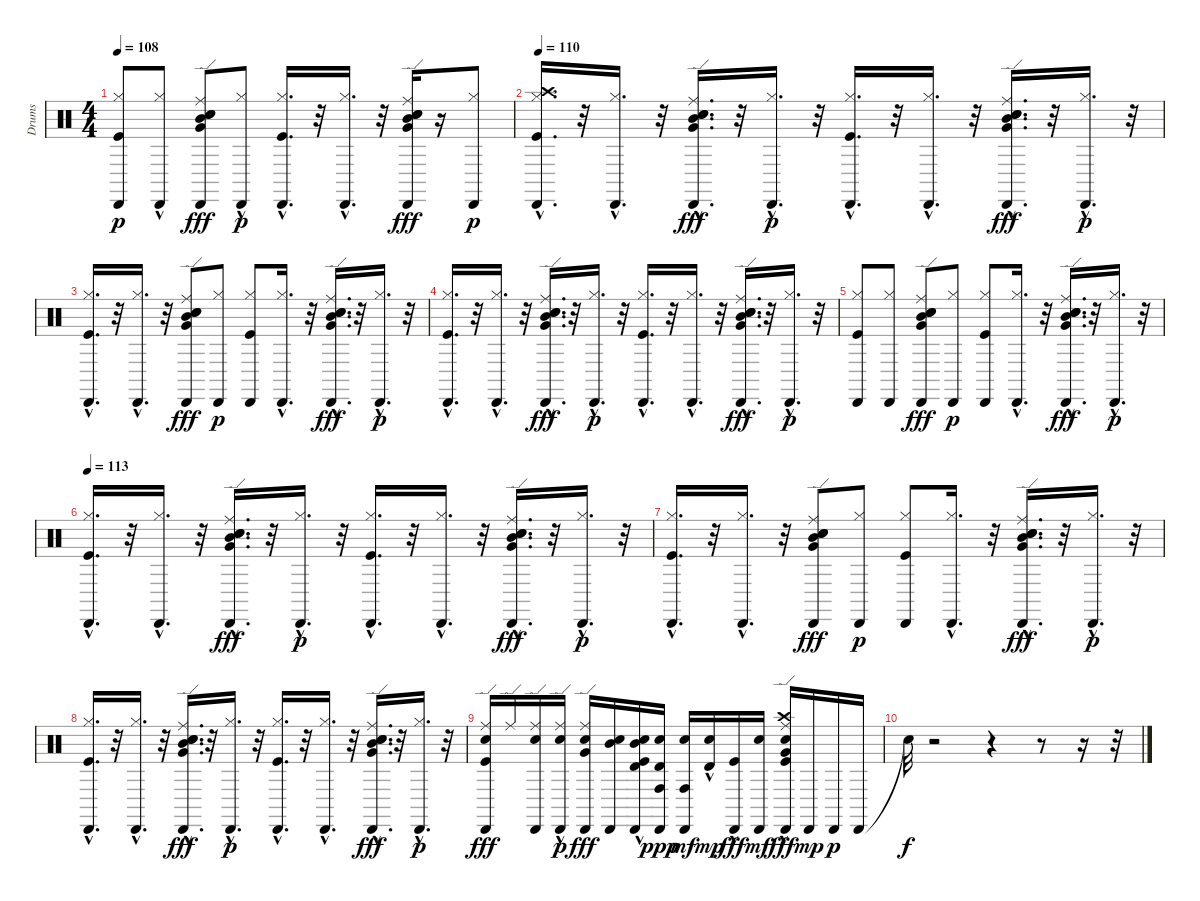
\track ("Drums" "Drums") {instrument percussion}
\staff {score}
\articulation defaults
\ts (4 4)
\tempo 108
\clef neutral
\ks c
("Hi-Hat (closed)" "Kick (hit)" "Cabasa (hit)").8{dy p} ("Hi-Hat (closed)"{hac} "Cabasa (hit)").8 ("Electric Snare (hit)" "Snare (hit) 2" "Ride (edge)" "Mid Tom (hit)" "Cabasa (hit)" "Very Low Tom (hit)").8{dy fff} ("Hi-Hat (closed)"{hac} "Cabasa (hit)").8{dy p} ("Hi-Hat (closed)"{hac} "Kick (hit)"{hac} "Cabasa (hit)"{hac}).16{d} r.32 ("Hi-Hat (closed)"{hac} "Cabasa (hit)"{hac}).16{d} r.32 ("Electric Snare (hit)" "Snare (hit) 2" "Ride (edge)" "Mid Tom (hit)" "Cabasa (hit)" "Very Low Tom (hit)").16{dy fff} r.16 ("Hi-Hat (closed)" "Cabasa (hit)").8{dy p} |
\tempo 110
("Crash high (hit)" "Hi-Hat (closed)"{hac} "Kick (hit)"{hac} "Cabasa (hit)"{hac}).16{d} r.32 ("Hi-Hat (closed)"{hac} "Cabasa (hit)"{hac}).16{d} r.32 ("Electric Snare (hit)"{hac} "Snare (hit) 2"{hac} "Ride (edge)"{hac} "Mid Tom (hit)"{hac} "Cabasa (hit)"{hac} "Very Low Tom (hit)"{hac}).16{d dy fff} r.32 ("Hi-Hat (closed)"{hac} "Cabasa (hit)"{hac}).16{d dy p} r.32 ("Hi-Hat (closed)"{hac} "Kick (hit)"{hac} "Cabasa (hit)"{hac}).16{d} r.32 ("Hi-Hat (closed)"{hac} "Cabasa (hit)"{hac}).16{d} r.32 ("Electric Snare (hit)"{hac} "Snare (hit) 2"{hac} "Ride (edge)"{hac} "Mid Tom (hit)"{hac} "Cabasa (hit)"{hac} "Very Low Tom (hit)"{hac}).16{d dy fff} r.32 ("Hi-Hat (closed)"{hac} "Cabasa (hit)"{hac}).16{d dy p} r.32 |
("Hi-Hat (closed)"{hac} "Kick (hit)"{hac} "Cabasa (hit)"{hac}).16{d} r.32 ("Hi-Hat (closed)"{hac} "Cabasa (hit)"{hac}).16{d} r.32 ("Electric Snare (hit)" "Snare (hit) 2" "Ride (edge)" "Mid Tom (hit)" "Cabasa (hit)" "Very Low Tom (hit)").8{dy fff} ("Hi-Hat (closed)" "Cabasa (hit)").8{dy p} ("Hi-Hat (closed)" "Kick (hit)" "Cabasa (hit)").8 ("Hi-Hat (closed)"{hac} "Cabasa (hit)"{hac}).16{d} r.32 ("Electric Snare (hit)"{hac} "Snare (hit) 2"{hac} "Ride (edge)"{hac} "Mid Tom (hit)"{hac} "Cabasa (hit)"{hac} "Very Low Tom (hit)"{hac}).16{d dy fff} r.32 ("Hi-Hat (closed)"{hac} "Cabasa (hit)"{hac}).16{d dy p} r.32 |
("Hi-Hat (closed)"{hac} "Kick (hit)"{hac} "Cabasa (hit)"{hac}).16{d} r.32 ("Hi-Hat (closed)"{hac} "Cabasa (hit)"{hac}).16{d} r.32 ("Electric Snare (hit)"{hac} "Snare (hit) 2"{hac} "Ride (edge)"{hac} "Mid Tom (hit)"{hac} "Cabasa (hit)"{hac} "Very Low Tom (hit)"{hac}).16{d dy fff} r.32 ("Hi-Hat (closed)"{hac} "Cabasa (hit)"{hac}).16{d dy p} r.32 ("Hi-Hat (closed)"{hac} "Kick (hit)"{hac} "Cabasa (hit)"{hac}).16{d} r.32 ("Hi-Hat (closed)"{hac} "Cabasa (hit)"{hac}).16{d} r.32 ("Electric Snare (hit)"{hac} "Snare (hit) 2"{hac} "Ride (edge)"{hac} "Mid Tom (hit)"{hac} "Cabasa (hit)"{hac} "Very Low Tom (hit)"{hac}).16{d dy fff} r.32 ("Hi-Hat (closed)"{hac} "Cabasa (hit)"{hac}).16{d dy p} r.32 |
("Hi-Hat (closed)" "Kick (hit)" "Cabasa (hit)").8 ("Hi-Hat (closed)" "Cabasa (hit)").8 ("Electric Snare (hit)" "Snare (hit) 2" "Ride (edge)" "Mid Tom (hit)" "Cabasa (hit)" "Very Low Tom (hit)").8{dy fff} ("Hi-Hat (closed)" "Cabasa (hit)").8{dy p} ("Hi-Hat (closed)" "Kick (hit)" "Cabasa (hit)").8 ("Hi-Hat (closed)"{hac} "Cabasa (hit)"{hac}).16{d} r.32 ("Electric Snare (hit)"{hac} "Snare (hit) 2"{hac} "Ride (edge)"{hac} "Mid Tom (hit)"{hac} "Cabasa (hit)"{hac} "Very Low Tom (hit)"{hac}).16{d dy fff} r.32 ("Hi-Hat (closed)"{hac} "Cabasa (hit)"{hac}).16{d dy p} r.32 |
\tempo 113
("Hi-Hat (closed)"{hac} "Kick (hit)"{hac} "Cabasa (hit)"{hac}).16{d} r.32 ("Hi-Hat (closed)"{hac} "Cabasa (hit)"{hac}).16{d} r.32 ("Electric Snare (hit)"{hac} "Snare (hit) 2"{hac} "Ride (edge)"{hac} "Mid Tom (hit)"{hac} "Cabasa (hit)"{hac} "Very Low Tom (hit)"{hac}).16{d dy fff} r.32 ("Hi-Hat (closed)"{hac} "Cabasa (hit)"{hac}).16{d dy p} r.32 ("Hi-Hat (closed)"{hac} "Kick (hit)"{hac} "Cabasa (hit)"{hac}).16{d} r.32 ("Hi-Hat (closed)"{hac} "Cabasa (hit)"{hac}).16{d} r.32 ("Electric Snare (hit)"{hac} "Snare (hit) 2"{hac} "Ride (edge)"{hac} "Mid Tom (hit)"{hac} "Cabasa (hit)"{hac} "Very Low Tom (hit)"{hac}).16{d dy fff} r.32 ("Hi-Hat (closed)"{hac} "Cabasa (hit)"{hac}).16{d dy p} r.32 |
("Hi-Hat (closed)"{hac} "Kick (hit)"{hac} "Cabasa (hit)"{hac}).16{d} r.32 ("Hi-Hat (closed)"{hac} "Cabasa (hit)"{hac}).16{d} r.32 ("Electric Snare (hit)" "Snare (hit) 2" "Ride (edge)" "Mid Tom (hit)" "Cabasa (hit)" "Very Low Tom (hit)").8{dy fff} ("Hi-Hat (closed)" "Cabasa (hit)").8{dy p} ("Hi-Hat (closed)" "Kick (hit)" "Cabasa (hit)").8 ("Hi-Hat (closed)"{hac} "Cabasa (hit)"{hac}).16{d} r.32 ("Electric Snare (hit)"{hac} "Snare (hit) 2"{hac} "Ride (edge)"{hac} "Mid Tom (hit)"{hac} "Cabasa (hit)"{hac} "Very Low Tom (hit)"{hac}).16{d dy fff} r.32 ("Hi-Hat (closed)"{hac} "Cabasa (hit)"{hac}).16{d dy p} r.32 |
("Hi-Hat (closed)"{hac} "Kick (hit)"{hac} "Cabasa (hit)"{hac}).16{d} r.32 ("Hi-Hat (closed)"{hac} "Cabasa (hit)"{hac}).16{d} r.32 ("Electric Snare (hit)"{hac} "Snare (hit) 2"{hac} "Ride (edge)"{hac} "Mid Tom (hit)"{hac} "Cabasa (hit)"{hac} "Very Low Tom (hit)"{hac}).16{d dy fff} r.32 ("Hi-Hat (closed)"{hac} "Cabasa (hit)"{hac}).16{d dy p} r.32 ("Hi-Hat (closed)"{hac} "Kick (hit)"{hac} "Cabasa (hit)"{hac}).16{d} r.32 ("Hi-Hat (closed)"{hac} "Cabasa (hit)"{hac}).16{d} r.32 ("Electric Snare (hit)"{hac} "Snare (hit) 2"{hac} "Ride (edge)"{hac} "Mid Tom (hit)"{hac} "Cabasa (hit)"{hac} "Very Low Tom (hit)"{hac}).16{d dy fff} r.32 ("Hi-Hat (closed)"{hac} "Cabasa (hit)"{hac}).16{d dy p} r.32 |
("Cabasa (hit)" "Ride (edge)" "Hand Clap (hit)" "Kick (hit)").16{dy fff} "Ride (edge)".16 ("Cabasa (hit)" "Hand Clap (hit)" "Ride (edge)").16 ("Cabasa (hit)" "Ride (edge)" "Hand Clap (hit)"{hac}).16{dy p} ("Ride (edge)" "Electric Snare (hit)" "Cabasa (hit)" "Very Low Tom (hit)").16{dy fff} ("Cabasa (hit)" "Hand Clap (hit)" "Mid Tom (hit)").16 ("Cabasa (hit)" "Timbale high (hit)" "Hand Clap (hit)" "Mid Tom (hit)"{hac} "Kick (hit)"{hac}).16 ("Cabasa (hit)" "Timbale high (hit)" "Hand Clap (hit)" "Conga high (hit)").16{dy ppp} ("Cabasa (hit)" "Hand Clap (hit)" "Conga high (hit)").16{dy mf} ("Timbale high (hit)"{hac} "Hand Clap (hit)"{hac}).16{dy mp} ("Cabasa (hit)" "Kick (hit)"{hac}).16{dy fff} ("Cabasa (hit)" "Hand Clap (hit)").16{dy mf} ("Crash high (hit)" "Electric Snare (hit)"{hac} "Cabasa (hit)" "Very Low Tom (hit)" "Ride (edge)"{hac} "Kick (hit)").16{dy fff} "Cabasa (hit)".16{dy mp} "Cabasa (hit)".16{dy p} "Cabasa (hit)".16 |
"Snare (hit)"{t}.32{dy f} r.2 r.4 r.8 r.16 r.32
